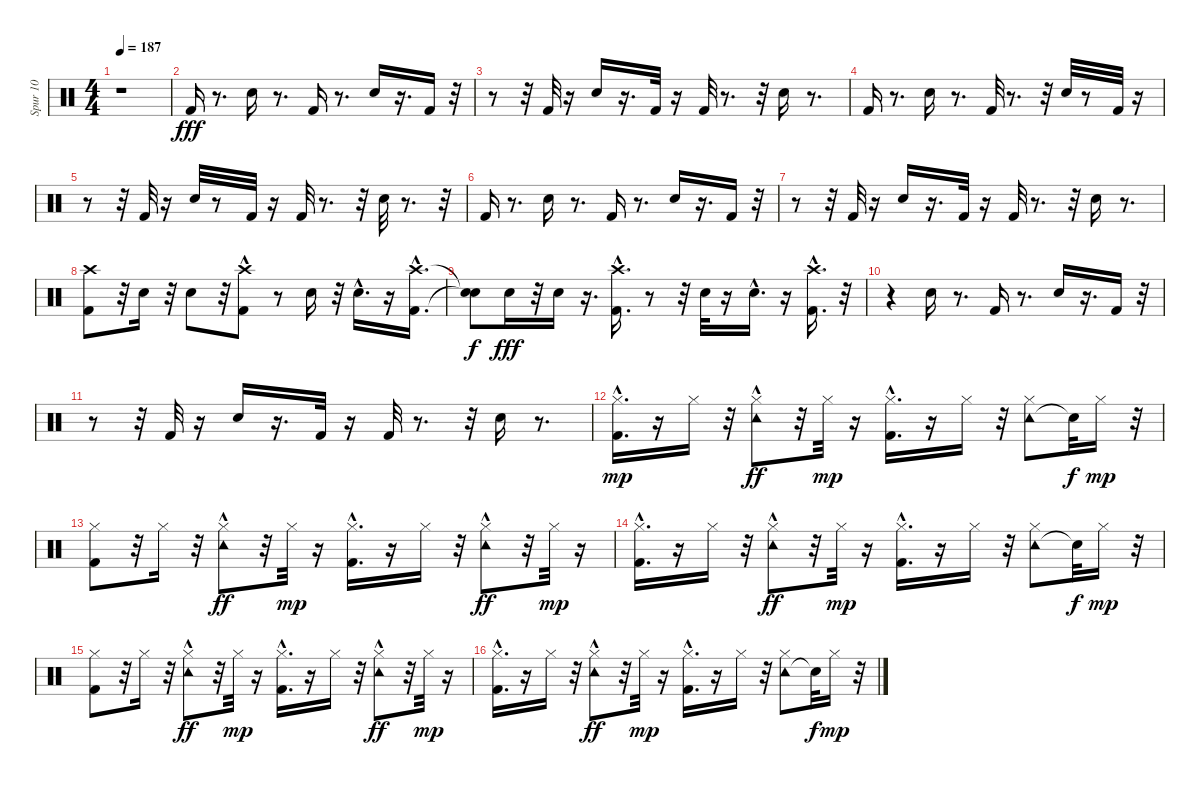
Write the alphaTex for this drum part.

\track ("Spur 10" "Spur 10") {instrument percussion}
\staff {score}
\articulation defaults
\ts (4 4)
\tempo 187
\clef neutral
\ks c
r.1{dy fff} |
"Kick (hit) 2".16 r.8{d} "Electric Snare (hit)".16 r.8{d} "Kick (hit) 2".16 r.8{d} "Electric Snare (hit)".16 r.16{d} "Kick (hit) 2".16 r.32 |
r.8 r.32 "Kick (hit) 2".32 r.16 "Electric Snare (hit)".16 r.16{d} "Kick (hit) 2".32 r.16 "Kick (hit) 2".32 r.8{d} r.32 "Electric Snare (hit)".16 r.8{d} |
"Kick (hit) 2".16 r.8{d} "Electric Snare (hit)".16 r.8{d} "Kick (hit) 2".32 r.8{d} r.32 "Electric Snare (hit)".32 r.8 "Kick (hit) 2".32 r.16 |
r.8 r.32 "Kick (hit) 2".32 r.16 "Electric Snare (hit)".32 r.8 "Kick (hit) 2".32 r.16 "Kick (hit) 2".32 r.8{d} r.32 "Electric Snare (hit)".32 r.8{d} r.32 |
"Kick (hit) 2".16 r.8{d} "Electric Snare (hit)".16 r.8{d} "Kick (hit) 2".16 r.8{d} "Electric Snare (hit)".16 r.16{d} "Kick (hit) 2".16 r.32 |
r.8 r.32 "Kick (hit) 2".32 r.16 "Electric Snare (hit)".16 r.16{d} "Kick (hit) 2".32 r.16 "Kick (hit) 2".32 r.8{d} r.32 "Electric Snare (hit)".16 r.8{d} |
("Crash high (hit)" "Kick (hit) 2").8 r.32 "Electric Snare (hit)".16 r.32 "Electric Snare (hit)".8 r.32 ("Crash high (hit)"{hac} "Kick (hit) 2").8 r.8 "Electric Snare (hit)".16 r.32 "Electric Snare (hit)"{hac}.16{d} r.16 ("Crash high (hit)"{hac} "Kick (hit) 2"{hac}).16{d} |
("Snare (hit)"{t} "Snare (hit)"{t}).8{dy f} "Electric Snare (hit)".16{dy fff} r.32 "Electric Snare (hit)".16 r.16{d} ("Kick (hit) 2"{hac} "Crash high (hit)").16{d} r.8 r.32 "Electric Snare (hit)".32 r.16 "Electric Snare (hit)"{hac}.16{d} r.16 ("Kick (hit) 2"{hac} "Crash high (hit)"{hac}).16{d} r.32 |
r.4 "Electric Snare (hit)".16 r.8{d} "Kick (hit) 2".16 r.8{d} "Electric Snare (hit)".16 r.16{d} "Kick (hit) 2".16 r.32 |
r.8 r.32 "Kick (hit) 2".32 r.16 "Electric Snare (hit)".16 r.16{d} "Kick (hit) 2".32 r.16 "Kick (hit) 2".32 r.8{d} r.32 "Electric Snare (hit)".16 r.8{d} |
("Kick (hit) 2"{hac} "Hi-Hat (closed)").16{d dy mp} r.16 "Hi-Hat (closed)".16 r.32 ("Hi-Hat (closed)" "Tambourine (hit)"{hac}).8{dy ff} r.32 "Hi-Hat (closed)".32{dy mp} r.16 ("Kick (hit) 2"{hac} "Hi-Hat (closed)").16{d} r.16 "Hi-Hat (closed)".16 r.32 ("Tambourine (hit)" "Hi-Hat (closed)").8 "Snare (hit)"{t}.32{dy f} "Hi-Hat (closed)".16{dy mp} r.32 |
("Hi-Hat (closed)" "Kick (hit) 2").8 r.32 "Hi-Hat (closed)".16 r.32 ("Hi-Hat (closed)" "Tambourine (hit)"{hac}).8{dy ff} r.32 "Hi-Hat (closed)".32{dy mp} r.16 ("Hi-Hat (closed)" "Kick (hit) 2"{hac}).16{d} r.16 "Hi-Hat (closed)".16 r.32 ("Hi-Hat (closed)" "Tambourine (hit)"{hac}).8{dy ff} r.32 "Hi-Hat (closed)".32{dy mp} r.16 |
("Kick (hit) 2"{hac} "Hi-Hat (closed)").16{d} r.16 "Hi-Hat (closed)".16 r.32 ("Hi-Hat (closed)" "Tambourine (hit)"{hac}).8{dy ff} r.32 "Hi-Hat (closed)".32{dy mp} r.16 ("Kick (hit) 2"{hac} "Hi-Hat (closed)").16{d} r.16 "Hi-Hat (closed)".16 r.32 ("Tambourine (hit)" "Hi-Hat (closed)").8 "Snare (hit)"{t}.32{dy f} "Hi-Hat (closed)".16{dy mp} r.32 |
("Hi-Hat (closed)" "Kick (hit) 2").8 r.32 "Hi-Hat (closed)".16 r.32 ("Hi-Hat (closed)" "Tambourine (hit)"{hac}).8{dy ff} r.32 "Hi-Hat (closed)".32{dy mp} r.16 ("Hi-Hat (closed)" "Kick (hit) 2"{hac}).16{d} r.16 "Hi-Hat (closed)".16 r.32 ("Hi-Hat (closed)" "Tambourine (hit)"{hac}).8{dy ff} r.32 "Hi-Hat (closed)".32{dy mp} r.16 |
("Kick (hit) 2"{hac} "Hi-Hat (closed)").16{d} r.16 "Hi-Hat (closed)".16 r.32 ("Hi-Hat (closed)" "Tambourine (hit)"{hac}).8{dy ff} r.32 "Hi-Hat (closed)".32{dy mp} r.16 ("Kick (hit) 2"{hac} "Hi-Hat (closed)").16{d} r.16 "Hi-Hat (closed)".16 r.32 ("Tambourine (hit)" "Hi-Hat (closed)").8 "Snare (hit)"{t}.32{dy f} "Hi-Hat (closed)".16{dy mp} r.32
